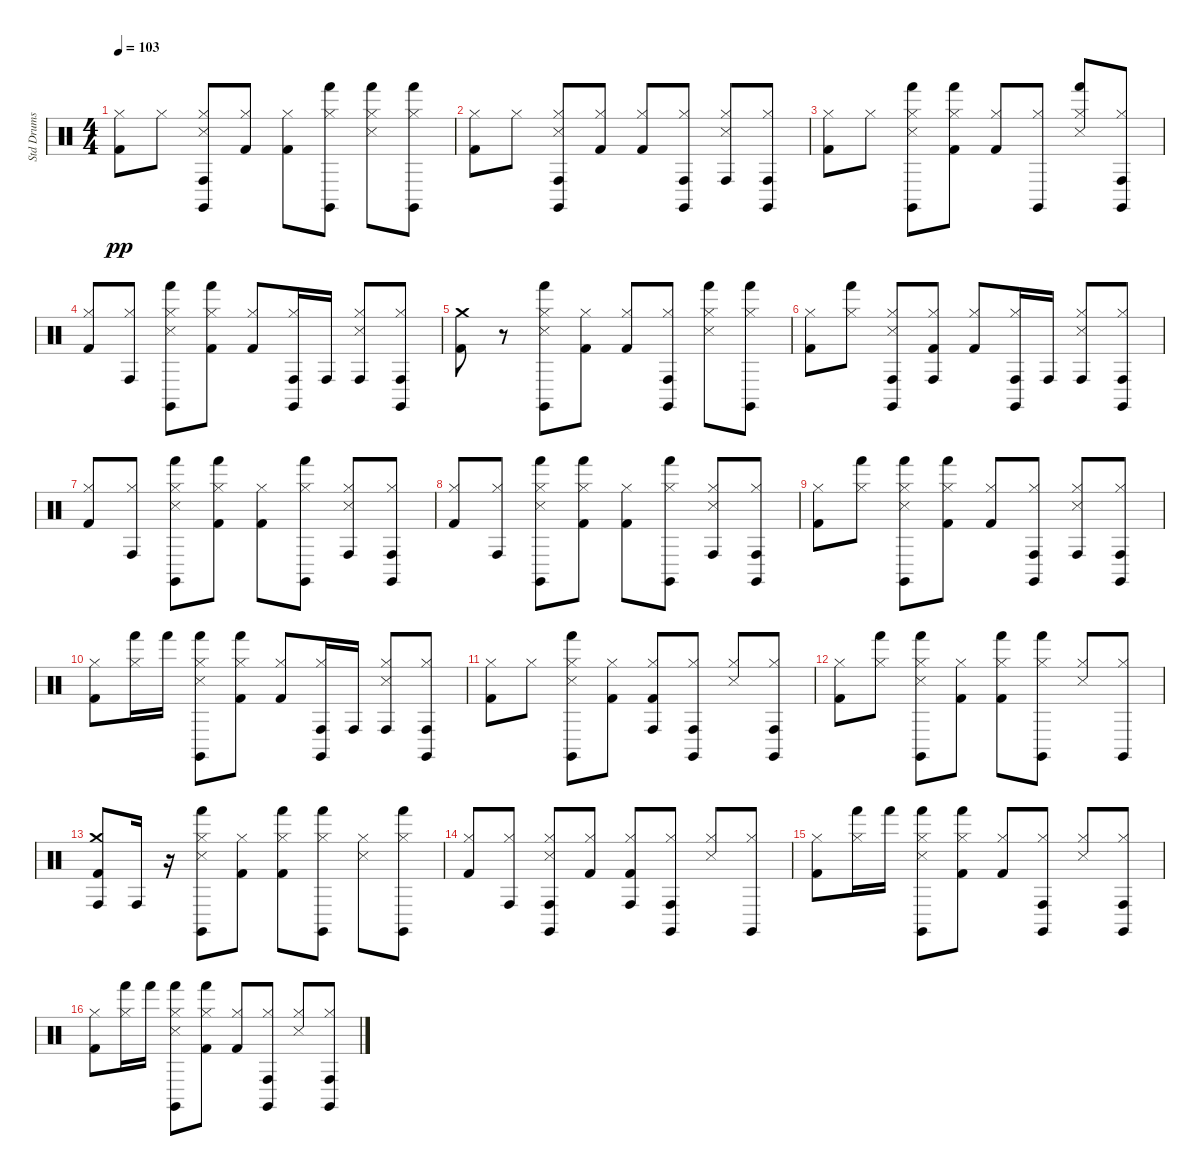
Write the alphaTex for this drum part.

\track ("Std Drums " "Std Drums ") {instrument percussion}
\staff {score}
\articulation defaults
\ts (4 4)
\tempo 103
\clef neutral
\ks c
("Hi-Hat (closed)" "Kick (hit) 2").8{dy pp} "Hi-Hat (closed)".8 ("Conga high (hit)" "Hi-Hat (closed)" "Snare (side stick) 3" "Claves (hit)").8 ("Hi-Hat (closed)" "Kick (hit) 2").8 ("Hi-Hat (closed)" "Kick (hit) 2").8 ("Claves (hit)" "Hi-Hat (closed)" "Hand (hit)").8 ("Snare (side stick) 3" "Hi-Hat (closed)" "Hand (hit)").8 ("Claves (hit)" "Hi-Hat (closed)" "Hand (hit)").8 |
("Kick (hit) 2" "Hi-Hat (closed)").8 "Hi-Hat (closed)".8 ("Claves (hit)" "Snare (side stick) 3" "Conga high (hit)" "Hi-Hat (closed)").8 ("Hi-Hat (closed)" "Kick (hit) 2").8 ("Kick (hit) 2" "Hi-Hat (closed)").8 ("Conga high (hit)" "Claves (hit)" "Hi-Hat (closed)").8 ("Snare (side stick) 3" "Hi-Hat (closed)" "Conga high (hit)").8 ("Hi-Hat (closed)" "Conga high (hit)" "Claves (hit)").8 |
("Kick (hit) 2" "Hi-Hat (closed)").8 "Hi-Hat (closed)".8 ("Hi-Hat (closed)" "Hand (hit)" "Claves (hit)" "Snare (side stick) 3").8 ("Hi-Hat (closed)" "Hand (hit)" "Kick (hit) 2").8 ("Hi-Hat (closed)" "Kick (hit) 2").8 ("Claves (hit)" "Hi-Hat (closed)").8 ("Hand (hit)" "Hi-Hat (closed)" "Snare (side stick) 3").8 ("Claves (hit)" "Hi-Hat (closed)" "Conga high (hit)").8 |
("Hi-Hat (closed)" "Kick (hit) 2").8 ("Conga high (hit)" "Hi-Hat (closed)").8 ("Hi-Hat (closed)" "Hand (hit)" "Snare (side stick) 3" "Claves (hit)").8 ("Hi-Hat (closed)" "Hand (hit)" "Kick (hit) 2").8 ("Kick (hit) 2" "Hi-Hat (closed)").8 ("Claves (hit)" "Hi-Hat (closed)" "Conga high (hit)").16 "Conga high (hit)".16 ("Hi-Hat (closed)" "Snare (side stick) 3" "Conga high (hit)").8 ("Conga high (hit)" "Hi-Hat (closed)" "Claves (hit)").8 |
("Crash medium (hit)" "Kick (hit) 2").8 r.8 ("Claves (hit)" "Hand (hit)" "Snare (side stick) 3" "Hi-Hat (closed)").8 ("Hi-Hat (closed)" "Kick (hit) 2").8 ("Kick (hit) 2" "Hi-Hat (closed)").8 ("Conga high (hit)" "Hi-Hat (closed)" "Claves (hit)").8 ("Hand (hit)" "Snare (side stick) 3" "Hi-Hat (closed)").8 ("Hand (hit)" "Hi-Hat (closed)" "Claves (hit)").8 |
("Kick (hit) 2" "Hi-Hat (closed)").8 ("Hi-Hat (closed)" "Hand (hit)").8 ("Hi-Hat (closed)" "Claves (hit)" "Conga high (hit)" "Snare (side stick) 3").8 ("Hi-Hat (closed)" "Kick (hit) 2" "Conga high (hit)").8 ("Hi-Hat (closed)" "Kick (hit) 2").8 ("Conga high (hit)" "Claves (hit)" "Hi-Hat (closed)").16 "Conga high (hit)".16 ("Snare (side stick) 3" "Hi-Hat (closed)" "Conga high (hit)").8 ("Hi-Hat (closed)" "Conga high (hit)" "Claves (hit)").8 |
("Kick (hit) 2" "Hi-Hat (closed)").8 ("Conga high (hit)" "Hi-Hat (closed)").8 ("Snare (side stick) 3" "Hand (hit)" "Claves (hit)" "Hi-Hat (closed)").8 ("Hand (hit)" "Hi-Hat (closed)" "Kick (hit) 2").8 ("Kick (hit) 2" "Hi-Hat (closed)").8 ("Claves (hit)" "Hi-Hat (closed)" "Hand (hit)").8 ("Hi-Hat (closed)" "Conga high (hit)" "Snare (side stick) 3").8 ("Hi-Hat (closed)" "Conga high (hit)" "Claves (hit)").8 |
("Hi-Hat (closed)" "Kick (hit) 2").8 ("Conga high (hit)" "Hi-Hat (closed)").8 ("Hi-Hat (closed)" "Hand (hit)" "Claves (hit)" "Snare (side stick) 3").8 ("Hand (hit)" "Hi-Hat (closed)" "Kick (hit) 2").8 ("Hi-Hat (closed)" "Kick (hit) 2").8 ("Claves (hit)" "Hi-Hat (closed)" "Hand (hit)").8 ("Hi-Hat (closed)" "Snare (side stick) 3" "Conga high (hit)").8 ("Conga high (hit)" "Hi-Hat (closed)" "Claves (hit)").8 |
("Hi-Hat (closed)" "Kick (hit) 2").8 ("Hi-Hat (closed)" "Hand (hit)").8 ("Hand (hit)" "Snare (side stick) 3" "Claves (hit)" "Hi-Hat (closed)").8 ("Hi-Hat (closed)" "Kick (hit) 2" "Hand (hit)").8 ("Kick (hit) 2" "Hi-Hat (closed)").8 ("Conga high (hit)" "Claves (hit)" "Hi-Hat (closed)").8 ("Snare (side stick) 3" "Conga high (hit)" "Hi-Hat (closed)").8 ("Hi-Hat (closed)" "Claves (hit)" "Conga high (hit)").8 |
("Hi-Hat (closed)" "Kick (hit) 2").8 ("Hi-Hat (closed)" "Hand (hit)").16 "Hand (hit)".16 ("Snare (side stick) 3" "Hi-Hat (closed)" "Hand (hit)" "Claves (hit)").8 ("Hi-Hat (closed)" "Hand (hit)" "Kick (hit) 2").8 ("Hi-Hat (closed)" "Kick (hit) 2").8 ("Conga high (hit)" "Claves (hit)" "Hi-Hat (closed)").16 "Conga high (hit)".16 ("Hi-Hat (closed)" "Conga high (hit)" "Snare (side stick) 3").8 ("Hi-Hat (closed)" "Conga high (hit)" "Claves (hit)").8 |
("Kick (hit) 2" "Hi-Hat (closed)").8 "Hi-Hat (closed)".8 ("Snare (side stick) 3" "Hand (hit)" "Claves (hit)" "Hi-Hat (closed)").8 ("Hi-Hat (closed)" "Kick (hit) 2").8 ("Kick (hit) 2" "Conga high (hit)" "Hi-Hat (closed)").8 ("Conga high (hit)" "Claves (hit)" "Hi-Hat (closed)").8 ("Hi-Hat (closed)" "Snare (side stick) 3").8 ("Hi-Hat (closed)" "Conga high (hit)" "Claves (hit)").8 |
("Hi-Hat (closed)" "Kick (hit) 2").8 ("Hi-Hat (closed)" "Hand (hit)").8 ("Claves (hit)" "Hand (hit)" "Hi-Hat (closed)" "Snare (side stick) 3").8 ("Kick (hit) 2" "Hi-Hat (closed)").8 ("Hi-Hat (closed)" "Hand (hit)" "Kick (hit) 2").8 ("Hand (hit)" "Claves (hit)" "Hi-Hat (closed)").8 ("Snare (side stick) 3" "Hi-Hat (closed)").8 ("Claves (hit)" "Hi-Hat (closed)").8 |
("Kick (hit) 2" "Crash medium (hit)" "Conga high (hit)").8 "Conga high (hit)".16 r.16 ("Snare (side stick) 3" "Claves (hit)" "Hand (hit)" "Hi-Hat (closed)").8 ("Kick (hit) 2" "Hi-Hat (closed)").8 ("Kick (hit) 2" "Hi-Hat (closed)" "Hand (hit)").8 ("Hand (hit)" "Hi-Hat (closed)" "Claves (hit)").8 ("Snare (side stick) 3" "Hi-Hat (closed)").8 ("Claves (hit)" "Hi-Hat (closed)" "Hand (hit)").8 |
("Hi-Hat (closed)" "Kick (hit) 2").8 ("Hi-Hat (closed)" "Conga high (hit)").8 ("Snare (side stick) 3" "Claves (hit)" "Conga high (hit)" "Hi-Hat (closed)").8 ("Hi-Hat (closed)" "Kick (hit) 2").8 ("Kick (hit) 2" "Conga high (hit)" "Hi-Hat (closed)").8 ("Conga high (hit)" "Claves (hit)" "Hi-Hat (closed)").8 ("Snare (side stick) 3" "Hi-Hat (closed)").8 ("Hi-Hat (closed)" "Claves (hit)").8 |
("Kick (hit) 2" "Hi-Hat (closed)").8 ("Hi-Hat (closed)" "Hand (hit)").16 "Hand (hit)".16 ("Hand (hit)" "Claves (hit)" "Hi-Hat (closed)" "Snare (side stick) 3").8 ("Kick (hit) 2" "Hi-Hat (closed)" "Hand (hit)").8 ("Kick (hit) 2" "Hi-Hat (closed)").8 ("Hi-Hat (closed)" "Conga high (hit)" "Claves (hit)").8 ("Hi-Hat (closed)" "Snare (side stick) 3").8 ("Hi-Hat (closed)" "Conga high (hit)" "Claves (hit)").8 |
("Hi-Hat (closed)" "Kick (hit) 2").8 ("Hand (hit)" "Hi-Hat (closed)").16 "Hand (hit)".16 ("Snare (side stick) 3" "Hand (hit)" "Claves (hit)" "Hi-Hat (closed)").8 ("Hi-Hat (closed)" "Hand (hit)" "Kick (hit) 2").8 ("Kick (hit) 2" "Hi-Hat (closed)").8 ("Conga high (hit)" "Claves (hit)" "Hi-Hat (closed)").8 ("Hi-Hat (closed)" "Snare (side stick) 3").8 ("Conga high (hit)" "Claves (hit)" "Hi-Hat (closed)").8
